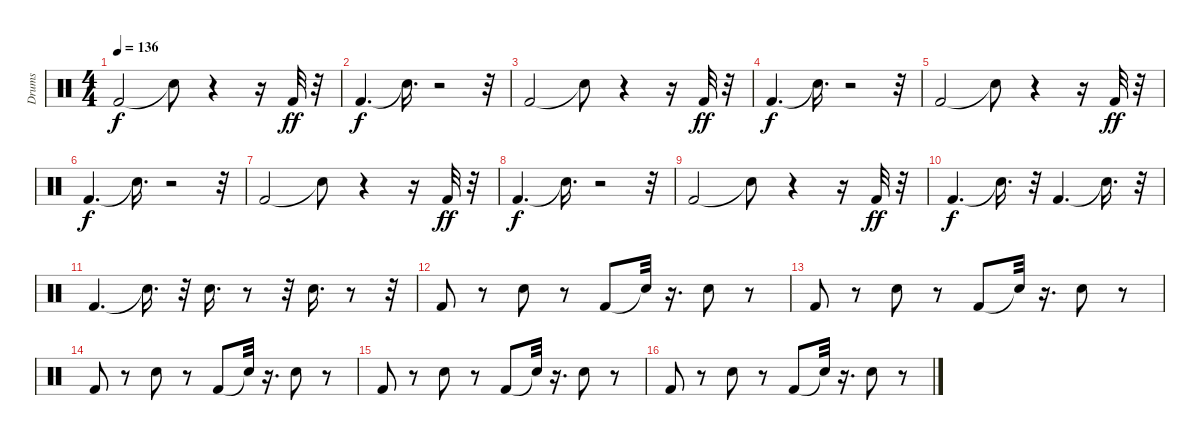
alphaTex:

\track ("Drums" "Drums") {instrument percussion}
\staff {score}
\articulation defaults
\ts (4 4)
\tempo 136
\clef neutral
\ks c "Kick (hit) 2".2{dy f} "Snare (hit)"{t}.8
r.4 r.16 "Kick (hit) 2".32{dy ff} r.32 |
"Kick (hit) 2".4{d dy f} "Snare (hit)"{t}.16{d} r.2 r.32 |
"Kick (hit) 2".2 "Snare (hit)"{t}.8 r.4 r.16 "Kick (hit) 2".32{dy ff} r.32 |
"Kick (hit) 2".4{d dy f} "Snare (hit)"{t}.16{d} r.2 r.32 |
"Kick (hit) 2".2 "Snare (hit)"{t}.8 r.4 r.16 "Kick (hit) 2".32{dy ff} r.32 |
"Kick (hit) 2".4{d dy f} "Snare (hit)"{t}.16{d} r.2 r.32 |
"Kick (hit) 2".2 "Snare (hit)"{t}.8 r.4 r.16 "Kick (hit) 2".32{dy ff} r.32 |
"Kick (hit) 2".4{d dy f} "Snare (hit)"{t}.16{d} r.2 r.32 |
"Kick (hit) 2".2 "Snare (hit)"{t}.8 r.4 r.16 "Kick (hit) 2".32{dy ff} r.32 |
"Kick (hit) 2".4{d dy f} "Snare (hit)"{t}.16{d} r.32 "Kick (hit) 2".4{d} "Snare (hit)"{t}.16{d} r.32 |
"Kick (hit) 2".4{d} "Snare (hit)"{t}.16{d} r.32 "Electric Snare (hit)".16{d} r.8 r.32 "Electric Snare (hit)".16{d} r.8 r.32 |
"Kick (hit) 2".8 r.8 "Electric Snare (hit)".8 r.8 "Kick (hit) 2".8 "Snare (hit)"{t}.32 r.16{d} "Electric Snare (hit)".8 r.8 |
"Kick (hit) 2".8 r.8 "Electric Snare (hit)".8 r.8 "Kick (hit) 2".8 "Snare (hit)"{t}.32 r.16{d} "Electric Snare (hit)".8 r.8 |
"Kick (hit) 2".8 r.8 "Electric Snare (hit)".8 r.8 "Kick (hit) 2".8 "Snare (hit)"{t}.32 r.16{d} "Electric Snare (hit)".8 r.8 |
"Kick (hit) 2".8 r.8 "Electric Snare (hit)".8 r.8 "Kick (hit) 2".8 "Snare (hit)"{t}.32 r.16{d} "Electric Snare (hit)".8 r.8 |
"Kick (hit) 2".8 r.8 "Electric Snare (hit)".8 r.8 "Kick (hit) 2".8 "Snare (hit)"{t}.32 r.16{d} "Electric Snare (hit)".8 r.8
